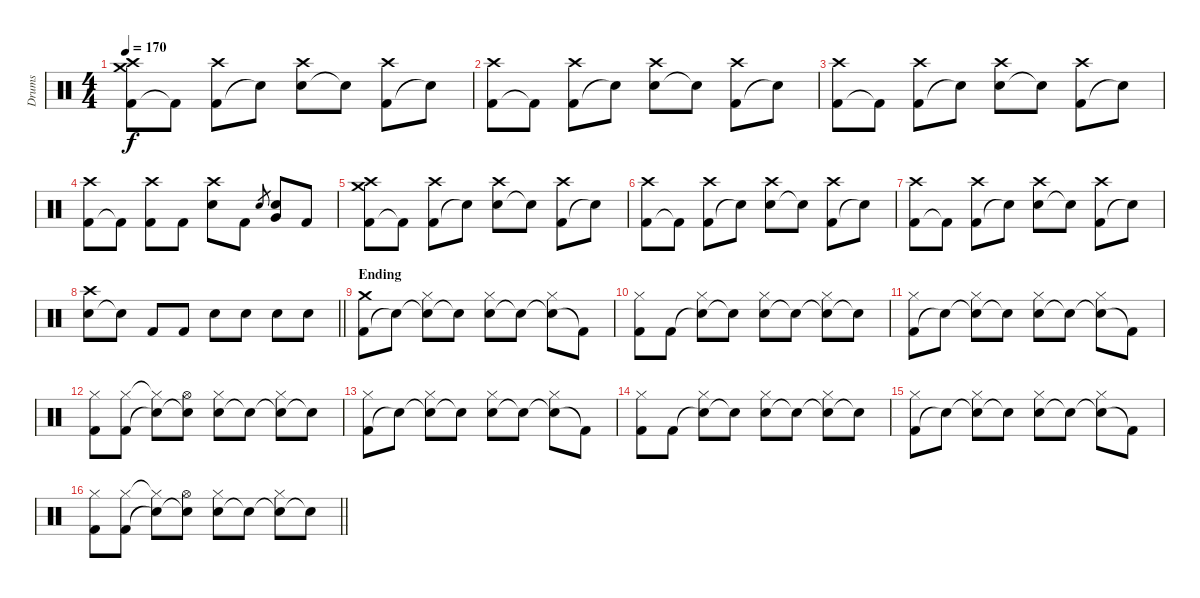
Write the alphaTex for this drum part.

\track ("Drums" "Drums") {instrument percussion}
\staff {score}
\articulation defaults
\ts (4 4)
\tempo 170
\clef neutral
\ks c
("Kick (hit) 2" "Crash medium (hit)" "Crash high (hit)").8{dy f} "Kick (hit) 2"{t}.8 ("Kick (hit) 2" "Crash high (hit)").8 "Snare (hit)"{t}.8 ("Electric Snare (hit)" "Crash high (hit)").8 "Snare (hit)"{t}.8 ("Kick (hit) 2" "Crash high (hit)").8 "Snare (hit)"{t}.8 |
("Kick (hit) 2" "Crash high (hit)").8 "Kick (hit) 2"{t}.8 ("Kick (hit) 2" "Crash high (hit)").8 "Snare (hit)"{t}.8 ("Electric Snare (hit)" "Crash high (hit)").8 "Snare (hit)"{t}.8 ("Kick (hit) 2" "Crash high (hit)").8 "Snare (hit)"{t}.8 |
("Kick (hit) 2" "Crash high (hit)").8 "Kick (hit) 2"{t}.8 ("Kick (hit) 2" "Crash high (hit)").8 "Snare (hit)"{t}.8 ("Electric Snare (hit)" "Crash high (hit)").8 "Snare (hit)"{t}.8 ("Kick (hit) 2" "Crash high (hit)").8 "Snare (hit)"{t}.8 |
("Kick (hit) 2" "Crash high (hit)").8 "Kick (hit) 2"{t}.8 ("Kick (hit) 2" "Crash high (hit)").8 "Kick (hit) 2".8 ("Electric Snare (hit)" "Crash high (hit)").8 "Kick (hit) 2".8 "Electric Snare (hit)".8{gr} ("Electric Snare (hit)" "Very Low Tom (hit)").8 "Kick (hit) 2".8 |
("Kick (hit) 2" "Crash medium (hit)" "Crash high (hit)").8 "Kick (hit) 2"{t}.8 ("Kick (hit) 2" "Crash high (hit)").8 "Snare (hit)"{t}.8 ("Electric Snare (hit)" "Crash high (hit)").8 "Snare (hit)"{t}.8 ("Kick (hit) 2" "Crash high (hit)").8 "Snare (hit)"{t}.8 |
("Kick (hit) 2" "Crash high (hit)").8 "Kick (hit) 2"{t}.8 ("Kick (hit) 2" "Crash high (hit)").8 "Snare (hit)"{t}.8 ("Electric Snare (hit)" "Crash high (hit)").8 "Snare (hit)"{t}.8 ("Kick (hit) 2" "Crash high (hit)").8 "Snare (hit)"{t}.8 |
("Kick (hit) 2" "Crash high (hit)").8 "Kick (hit) 2"{t}.8 ("Kick (hit) 2" "Crash high (hit)").8 "Snare (hit)"{t}.8 ("Electric Snare (hit)" "Crash high (hit)").8 "Snare (hit)"{t}.8 ("Kick (hit) 2" "Crash high (hit)").8 "Snare (hit)"{t}.8 |
\barLineRight lightlight
("Electric Snare (hit)" "Crash high (hit)").8 "Snare (hit)"{t}.8 "Kick (hit) 2".8 "Kick (hit) 2".8 "Electric Snare (hit)".8 "Electric Snare (hit)".8 "Electric Snare (hit)".8 "Electric Snare (hit)".8 |
\section ("" "Ending")
("Kick (hit) 2" "Crash medium (hit)").8 "Snare (hit)"{t}.8 ("Electric Snare (hit)"{t} "Hi-Hat (closed)").8 "Electric Snare (hit)"{t}.8 ("Electric Snare (hit)" "Hi-Hat (closed)").8 "Snare (hit)"{t}.8 ("Snare (hit)"{t} "Hi-Hat (closed)").8 "Kick (hit) 2"{t}.8 |
("Kick (hit) 2" "Hi-Hat (closed)").8 "Kick (hit) 2".8 ("Snare (hit)"{t} "Hi-Hat (closed)").8 "Snare (hit)"{t}.8 ("Electric Snare (hit)" "Hi-Hat (closed)").8 "Snare (hit)"{t}.8 ("Snare (hit)"{t} "Hi-Hat (closed)").8 "Snare (hit)"{t}.8 |
("Kick (hit) 2" "Hi-Hat (closed)").8 "Snare (hit)"{t}.8 ("Electric Snare (hit)"{t} "Hi-Hat (closed)").8 "Electric Snare (hit)"{t}.8 ("Electric Snare (hit)" "Hi-Hat (closed)").8 "Snare (hit)"{t}.8 ("Snare (hit)"{t} "Hi-Hat (closed)").8 "Kick (hit) 2"{t}.8 |
("Kick (hit) 2" "Hi-Hat (closed)").8 ("Kick (hit) 2" "Hi-Hat (closed)").8 ("Snare (hit)"{t} "Hi-Hat (closed)"{t}).8 ("Snare (hit)"{t} "Hi-Hat (open)").8 ("Electric Snare (hit)" "Hi-Hat (closed)").8 "Snare (hit)"{t}.8 ("Snare (hit)"{t} "Hi-Hat (closed)").8 "Snare (hit)"{t}.8 |
("Kick (hit) 2" "Hi-Hat (closed)").8 "Snare (hit)"{t}.8 ("Electric Snare (hit)"{t} "Hi-Hat (closed)").8 "Electric Snare (hit)"{t}.8 ("Electric Snare (hit)" "Hi-Hat (closed)").8 "Snare (hit)"{t}.8 ("Snare (hit)"{t} "Hi-Hat (closed)").8 "Kick (hit) 2"{t}.8 |
("Kick (hit) 2" "Hi-Hat (closed)").8 "Kick (hit) 2".8 ("Snare (hit)"{t} "Hi-Hat (closed)").8 "Snare (hit)"{t}.8 ("Electric Snare (hit)" "Hi-Hat (closed)").8 "Snare (hit)"{t}.8 ("Snare (hit)"{t} "Hi-Hat (closed)").8 "Snare (hit)"{t}.8 |
("Kick (hit) 2" "Hi-Hat (closed)").8 "Snare (hit)"{t}.8 ("Electric Snare (hit)"{t} "Hi-Hat (closed)").8 "Electric Snare (hit)"{t}.8 ("Electric Snare (hit)" "Hi-Hat (closed)").8 "Snare (hit)"{t}.8 ("Snare (hit)"{t} "Hi-Hat (closed)").8 "Kick (hit) 2"{t}.8 |
\barLineRight lightlight
("Kick (hit) 2" "Hi-Hat (closed)").8 ("Kick (hit) 2" "Hi-Hat (closed)").8 ("Snare (hit)"{t} "Hi-Hat (closed)"{t}).8 ("Snare (hit)"{t} "Hi-Hat (open)").8 ("Electric Snare (hit)" "Hi-Hat (closed)").8 "Snare (hit)"{t}.8 ("Snare (hit)"{t} "Hi-Hat (closed)").8 "Snare (hit)"{t}.8
